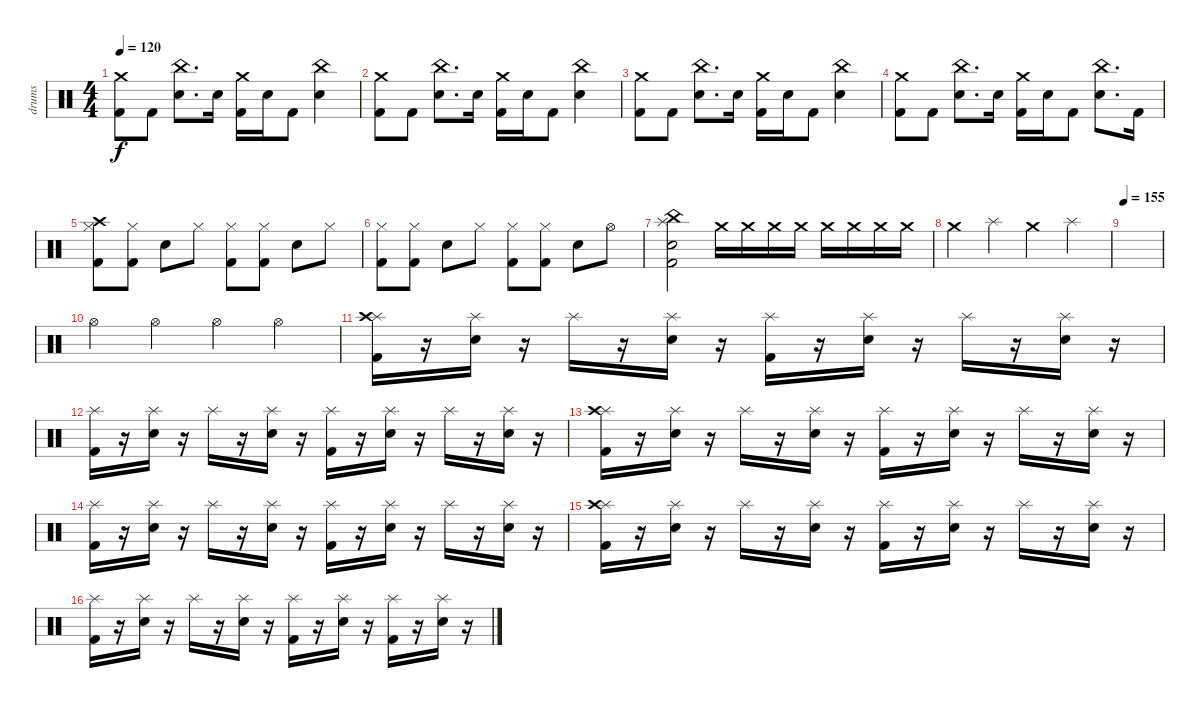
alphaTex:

\track ("drums" "drums") {instrument percussion}
\staff {score}
\articulation defaults
\ts (4 4)
\tempo 120
\clef neutral
\ks c
("Crash medium (hit)" "Kick (hit) 2").8{dy f} "Kick (hit) 2".8 ("China (hit)" "Snare (hit) 2").8{d} "Snare (hit) 2".16 ("Crash medium (hit)" "Kick (hit) 2").16 "Snare (hit) 2".16 "Kick (hit) 2".8 ("China (hit)" "Snare (hit) 2").4 |
("Crash medium (hit)" "Kick (hit) 2").8 "Kick (hit) 2".8 ("China (hit)" "Snare (hit) 2").8{d} "Snare (hit) 2".16 ("Crash medium (hit)" "Kick (hit) 2").16 "Snare (hit) 2".16 "Kick (hit) 2".8 ("China (hit)" "Snare (hit) 2").4 |
("Crash medium (hit)" "Kick (hit) 2").8 "Kick (hit) 2".8 ("China (hit)" "Snare (hit) 2").8{d} "Snare (hit) 2".16 ("Crash medium (hit)" "Kick (hit) 2").16 "Snare (hit) 2".16 "Kick (hit) 2".8 ("China (hit)" "Snare (hit) 2").4 |
("Crash medium (hit)" "Kick (hit) 2").8 "Kick (hit) 2".8 ("China (hit)" "Snare (hit) 2").8{d} "Snare (hit) 2".16 ("Crash medium (hit)" "Kick (hit) 2").16 "Snare (hit) 2".16 "Kick (hit) 2".8 ("China (hit)" "Snare (hit) 2").8{d} "Kick (hit) 2".16 |
("Crash high (hit)" "Hi-Hat (closed)" "Kick (hit) 2").8 ("Hi-Hat (closed)" "Kick (hit) 2").8 "Snare (hit) 2".8 "Hi-Hat (closed)".8 ("Hi-Hat (closed)" "Kick (hit) 2").8 ("Hi-Hat (closed)" "Kick (hit) 2").8 "Snare (hit) 2".8 "Hi-Hat (closed)".8 |
("Hi-Hat (closed)" "Kick (hit) 2").8 ("Hi-Hat (closed)" "Kick (hit) 2").8 "Snare (hit) 2".8 "Hi-Hat (closed)".8 ("Hi-Hat (closed)" "Kick (hit) 2").8 ("Hi-Hat (closed)" "Kick (hit) 2").8 "Snare (hit) 2".8 "Hi-Hat (open)".8 |
("China (hit)" "Splash (hit)" "Snare (hit) 2" "Kick (hit) 2").2 "Crash medium (hit)".16 "Crash medium (hit)".16 "Crash medium (hit)".16 "Crash medium (hit)".16 "Crash medium (hit)".16 "Crash medium (hit)".16 "Crash medium (hit)".16 "Crash medium (hit)".16 |
"Crash medium (hit)".4 "Splash (hit)".4 "Crash medium (hit)".4 "Splash (hit)".4 |
\tempo 155
|
"Hi-Hat (open)".4 "Hi-Hat (open)".4 "Hi-Hat (open)".4 "Hi-Hat (open)".4 |
("Splash (hit)" "Crash high (hit)" "Kick (hit) 2").16 r.16 ("Splash (hit)" "Snare (hit) 2").16 r.16 "Splash (hit)".16 r.16 ("Splash (hit)" "Snare (hit) 2").16 r.16 ("Splash (hit)" "Kick (hit) 2").16 r.16 ("Splash (hit)" "Snare (hit) 2").16 r.16 "Splash (hit)".16 r.16 ("Splash (hit)" "Snare (hit) 2").16 r.16 |
("Splash (hit)" "Kick (hit) 2").16 r.16 ("Splash (hit)" "Snare (hit) 2").16 r.16 "Splash (hit)".16 r.16 ("Splash (hit)" "Snare (hit) 2").16 r.16 ("Splash (hit)" "Kick (hit) 2").16 r.16 ("Splash (hit)" "Snare (hit) 2").16 r.16 "Splash (hit)".16 r.16 ("Splash (hit)" "Snare (hit) 2").16 r.16 |
("Splash (hit)" "Crash high (hit)" "Kick (hit) 2").16 r.16 ("Splash (hit)" "Snare (hit) 2").16 r.16 "Splash (hit)".16 r.16 ("Splash (hit)" "Snare (hit) 2").16 r.16 ("Splash (hit)" "Kick (hit) 2").16 r.16 ("Splash (hit)" "Snare (hit) 2").16 r.16 "Splash (hit)".16 r.16 ("Splash (hit)" "Snare (hit) 2").16 r.16 |
("Splash (hit)" "Kick (hit) 2").16 r.16 ("Splash (hit)" "Snare (hit) 2").16 r.16 "Splash (hit)".16 r.16 ("Splash (hit)" "Snare (hit) 2").16 r.16 ("Splash (hit)" "Kick (hit) 2").16 r.16 ("Splash (hit)" "Snare (hit) 2").16 r.16 "Splash (hit)".16 r.16 ("Splash (hit)" "Snare (hit) 2").16 r.16 |
("Splash (hit)" "Crash high (hit)" "Kick (hit) 2").16 r.16 ("Splash (hit)" "Snare (hit) 2").16 r.16 "Splash (hit)".16 r.16 ("Splash (hit)" "Snare (hit) 2").16 r.16 ("Splash (hit)" "Kick (hit) 2").16 r.16 ("Splash (hit)" "Snare (hit) 2").16 r.16 "Splash (hit)".16 r.16 ("Splash (hit)" "Snare (hit) 2").16 r.16 |
("Splash (hit)" "Kick (hit) 2").16 r.16 ("Splash (hit)" "Snare (hit) 2").16 r.16 "Splash (hit)".16 r.16 ("Splash (hit)" "Snare (hit) 2").16 r.16 ("Splash (hit)" "Kick (hit) 2").16 r.16 ("Splash (hit)" "Snare (hit) 2").16 r.16 ("Splash (hit)" "Kick (hit) 2").16 r.16 ("Splash (hit)" "Snare (hit) 2").16 r.16
